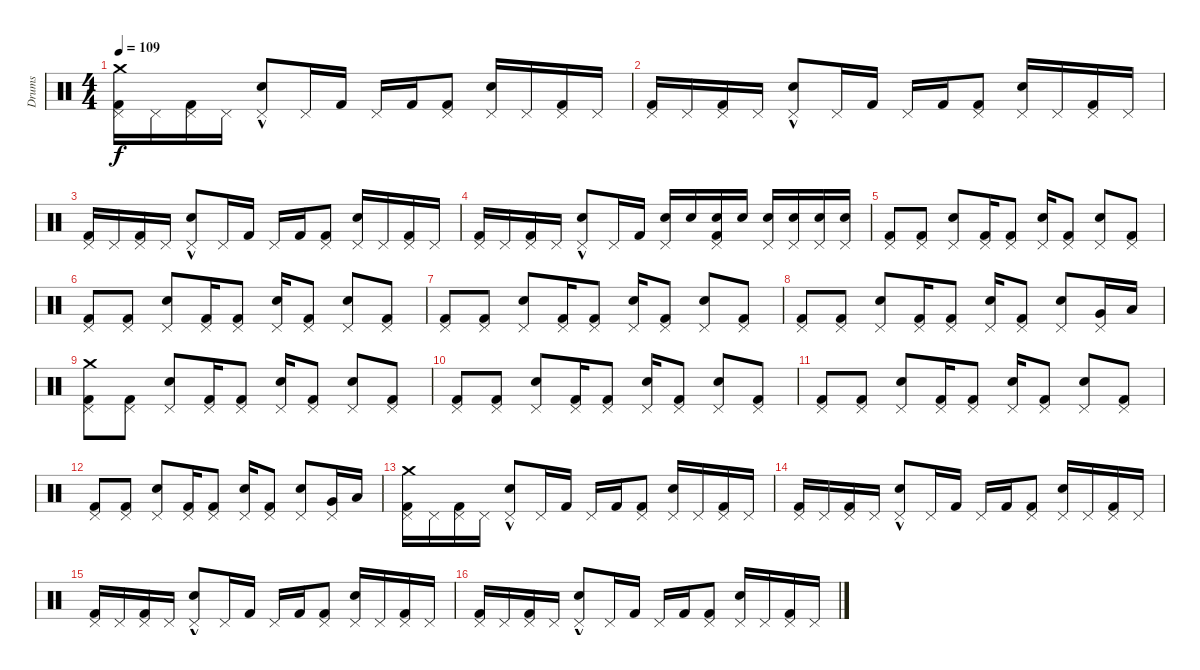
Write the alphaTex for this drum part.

\track ("Drums" "Drums") {instrument percussion}
\staff {score}
\articulation defaults
\ts (4 4)
\tempo 109
\clef neutral
\ks c
("Crash medium (hit)" "Kick (hit) 2" "Pedal Hi-Hat (hit)").16{dy f} "Pedal Hi-Hat (hit)".16 ("Kick (hit) 2" "Pedal Hi-Hat (hit)").16 "Pedal Hi-Hat (hit)".16 ("Snare (hit) 2"{hac} "Pedal Hi-Hat (hit)").8 "Pedal Hi-Hat (hit)".16 "Kick (hit) 2".16 "Pedal Hi-Hat (hit)".16 "Kick (hit) 2".16 ("Kick (hit) 2" "Pedal Hi-Hat (hit)").8 ("Snare (hit) 2" "Pedal Hi-Hat (hit)").16 "Pedal Hi-Hat (hit)".16 ("Kick (hit) 2" "Pedal Hi-Hat (hit)").16 "Pedal Hi-Hat (hit)".16 |
("Kick (hit) 2" "Pedal Hi-Hat (hit)").16 "Pedal Hi-Hat (hit)".16 ("Kick (hit) 2" "Pedal Hi-Hat (hit)").16 "Pedal Hi-Hat (hit)".16 ("Snare (hit) 2"{hac} "Pedal Hi-Hat (hit)").8 "Pedal Hi-Hat (hit)".16 "Kick (hit) 2".16 "Pedal Hi-Hat (hit)".16 "Kick (hit) 2".16 ("Kick (hit) 2" "Pedal Hi-Hat (hit)").8 ("Snare (hit) 2" "Pedal Hi-Hat (hit)").16 "Pedal Hi-Hat (hit)".16 ("Kick (hit) 2" "Pedal Hi-Hat (hit)").16 "Pedal Hi-Hat (hit)".16 |
("Kick (hit) 2" "Pedal Hi-Hat (hit)").16 "Pedal Hi-Hat (hit)".16 ("Kick (hit) 2" "Pedal Hi-Hat (hit)").16 "Pedal Hi-Hat (hit)".16 ("Snare (hit) 2"{hac} "Pedal Hi-Hat (hit)").8 "Pedal Hi-Hat (hit)".16 "Kick (hit) 2".16 "Pedal Hi-Hat (hit)".16 "Kick (hit) 2".16 ("Kick (hit) 2" "Pedal Hi-Hat (hit)").8 ("Snare (hit) 2" "Pedal Hi-Hat (hit)").16 "Pedal Hi-Hat (hit)".16 ("Kick (hit) 2" "Pedal Hi-Hat (hit)").16 "Pedal Hi-Hat (hit)".16 |
("Kick (hit) 2" "Pedal Hi-Hat (hit)").16 "Pedal Hi-Hat (hit)".16 ("Kick (hit) 2" "Pedal Hi-Hat (hit)").16 "Pedal Hi-Hat (hit)".16 ("Snare (hit) 2"{hac} "Pedal Hi-Hat (hit)").8 "Pedal Hi-Hat (hit)".16 "Kick (hit) 2".16 ("Snare (hit) 2" "Pedal Hi-Hat (hit)").16 "Snare (hit) 2".16 ("Snare (hit) 2" "Kick (hit) 2" "Pedal Hi-Hat (hit)").16 "Snare (hit) 2".16 ("Snare (hit) 2" "Pedal Hi-Hat (hit)").16 ("Snare (hit) 2" "Pedal Hi-Hat (hit)").16 ("Snare (hit) 2" "Pedal Hi-Hat (hit)").16 ("Snare (hit) 2" "Pedal Hi-Hat (hit)").16 |
("Pedal Hi-Hat (hit)" "Kick (hit) 2").8 ("Pedal Hi-Hat (hit)" "Kick (hit) 2").8 ("Pedal Hi-Hat (hit)" "Snare (hit) 2").8 ("Pedal Hi-Hat (hit)" "Kick (hit) 2").16 ("Pedal Hi-Hat (hit)" "Kick (hit) 2").8 ("Pedal Hi-Hat (hit)" "Snare (hit) 2").16 ("Pedal Hi-Hat (hit)" "Kick (hit) 2").8 ("Pedal Hi-Hat (hit)" "Snare (hit) 2").8 ("Pedal Hi-Hat (hit)" "Kick (hit) 2").8 |
("Pedal Hi-Hat (hit)" "Kick (hit) 2").8 ("Pedal Hi-Hat (hit)" "Kick (hit) 2").8 ("Pedal Hi-Hat (hit)" "Snare (hit) 2").8 ("Pedal Hi-Hat (hit)" "Kick (hit) 2").16 ("Pedal Hi-Hat (hit)" "Kick (hit) 2").8 ("Pedal Hi-Hat (hit)" "Snare (hit) 2").16 ("Pedal Hi-Hat (hit)" "Kick (hit) 2").8 ("Pedal Hi-Hat (hit)" "Snare (hit) 2").8 ("Pedal Hi-Hat (hit)" "Kick (hit) 2").8 |
("Pedal Hi-Hat (hit)" "Kick (hit) 2").8 ("Pedal Hi-Hat (hit)" "Kick (hit) 2").8 ("Pedal Hi-Hat (hit)" "Snare (hit) 2").8 ("Pedal Hi-Hat (hit)" "Kick (hit) 2").16 ("Pedal Hi-Hat (hit)" "Kick (hit) 2").8 ("Pedal Hi-Hat (hit)" "Snare (hit) 2").16 ("Pedal Hi-Hat (hit)" "Kick (hit) 2").8 ("Pedal Hi-Hat (hit)" "Snare (hit) 2").8 ("Pedal Hi-Hat (hit)" "Kick (hit) 2").8 |
("Pedal Hi-Hat (hit)" "Kick (hit) 2").8 ("Pedal Hi-Hat (hit)" "Kick (hit) 2").8 ("Pedal Hi-Hat (hit)" "Snare (hit) 2").8 ("Pedal Hi-Hat (hit)" "Kick (hit) 2").16 ("Pedal Hi-Hat (hit)" "Kick (hit) 2").8 ("Pedal Hi-Hat (hit)" "Snare (hit) 2").16 ("Pedal Hi-Hat (hit)" "Kick (hit) 2").8 ("Pedal Hi-Hat (hit)" "Snare (hit) 2").8 ("Very Low Tom (hit)" "Pedal Hi-Hat (hit)").16 "Low Floor Tom (hit)".16 |
("Crash medium (hit)" "Pedal Hi-Hat (hit)" "Kick (hit) 2").8 ("Pedal Hi-Hat (hit)" "Kick (hit) 2").8 ("Pedal Hi-Hat (hit)" "Snare (hit) 2").8 ("Pedal Hi-Hat (hit)" "Kick (hit) 2").16 ("Pedal Hi-Hat (hit)" "Kick (hit) 2").8 ("Pedal Hi-Hat (hit)" "Snare (hit) 2").16 ("Pedal Hi-Hat (hit)" "Kick (hit) 2").8 ("Pedal Hi-Hat (hit)" "Snare (hit) 2").8 ("Pedal Hi-Hat (hit)" "Kick (hit) 2").8 |
("Pedal Hi-Hat (hit)" "Kick (hit) 2").8 ("Pedal Hi-Hat (hit)" "Kick (hit) 2").8 ("Pedal Hi-Hat (hit)" "Snare (hit) 2").8 ("Pedal Hi-Hat (hit)" "Kick (hit) 2").16 ("Pedal Hi-Hat (hit)" "Kick (hit) 2").8 ("Pedal Hi-Hat (hit)" "Snare (hit) 2").16 ("Pedal Hi-Hat (hit)" "Kick (hit) 2").8 ("Pedal Hi-Hat (hit)" "Snare (hit) 2").8 ("Pedal Hi-Hat (hit)" "Kick (hit) 2").8 |
("Pedal Hi-Hat (hit)" "Kick (hit) 2").8 ("Pedal Hi-Hat (hit)" "Kick (hit) 2").8 ("Pedal Hi-Hat (hit)" "Snare (hit) 2").8 ("Pedal Hi-Hat (hit)" "Kick (hit) 2").16 ("Pedal Hi-Hat (hit)" "Kick (hit) 2").8 ("Pedal Hi-Hat (hit)" "Snare (hit) 2").16 ("Pedal Hi-Hat (hit)" "Kick (hit) 2").8 ("Pedal Hi-Hat (hit)" "Snare (hit) 2").8 ("Pedal Hi-Hat (hit)" "Kick (hit) 2").8 |
("Pedal Hi-Hat (hit)" "Kick (hit) 2").8 ("Pedal Hi-Hat (hit)" "Kick (hit) 2").8 ("Pedal Hi-Hat (hit)" "Snare (hit) 2").8 ("Pedal Hi-Hat (hit)" "Kick (hit) 2").16 ("Pedal Hi-Hat (hit)" "Kick (hit) 2").8 ("Pedal Hi-Hat (hit)" "Snare (hit) 2").16 ("Pedal Hi-Hat (hit)" "Kick (hit) 2").8 ("Pedal Hi-Hat (hit)" "Snare (hit) 2").8 ("Very Low Tom (hit)" "Pedal Hi-Hat (hit)").16 "Low Floor Tom (hit)".16 |
("Crash medium (hit)" "Kick (hit) 2" "Pedal Hi-Hat (hit)").16 "Pedal Hi-Hat (hit)".16 ("Kick (hit) 2" "Pedal Hi-Hat (hit)").16 "Pedal Hi-Hat (hit)".16 ("Snare (hit) 2"{hac} "Pedal Hi-Hat (hit)").8 "Pedal Hi-Hat (hit)".16 "Kick (hit) 2".16 "Pedal Hi-Hat (hit)".16 "Kick (hit) 2".16 ("Kick (hit) 2" "Pedal Hi-Hat (hit)").8 ("Snare (hit) 2" "Pedal Hi-Hat (hit)").16 "Pedal Hi-Hat (hit)".16 ("Kick (hit) 2" "Pedal Hi-Hat (hit)").16 "Pedal Hi-Hat (hit)".16 |
("Kick (hit) 2" "Pedal Hi-Hat (hit)").16 "Pedal Hi-Hat (hit)".16 ("Kick (hit) 2" "Pedal Hi-Hat (hit)").16 "Pedal Hi-Hat (hit)".16 ("Snare (hit) 2"{hac} "Pedal Hi-Hat (hit)").8 "Pedal Hi-Hat (hit)".16 "Kick (hit) 2".16 "Pedal Hi-Hat (hit)".16 "Kick (hit) 2".16 ("Kick (hit) 2" "Pedal Hi-Hat (hit)").8 ("Snare (hit) 2" "Pedal Hi-Hat (hit)").16 "Pedal Hi-Hat (hit)".16 ("Kick (hit) 2" "Pedal Hi-Hat (hit)").16 "Pedal Hi-Hat (hit)".16 |
("Kick (hit) 2" "Pedal Hi-Hat (hit)").16 "Pedal Hi-Hat (hit)".16 ("Kick (hit) 2" "Pedal Hi-Hat (hit)").16 "Pedal Hi-Hat (hit)".16 ("Snare (hit) 2"{hac} "Pedal Hi-Hat (hit)").8 "Pedal Hi-Hat (hit)".16 "Kick (hit) 2".16 "Pedal Hi-Hat (hit)".16 "Kick (hit) 2".16 ("Kick (hit) 2" "Pedal Hi-Hat (hit)").8 ("Snare (hit) 2" "Pedal Hi-Hat (hit)").16 "Pedal Hi-Hat (hit)".16 ("Kick (hit) 2" "Pedal Hi-Hat (hit)").16 "Pedal Hi-Hat (hit)".16 |
("Kick (hit) 2" "Pedal Hi-Hat (hit)").16 "Pedal Hi-Hat (hit)".16 ("Kick (hit) 2" "Pedal Hi-Hat (hit)").16 "Pedal Hi-Hat (hit)".16 ("Snare (hit) 2"{hac} "Pedal Hi-Hat (hit)").8 "Pedal Hi-Hat (hit)".16 "Kick (hit) 2".16 "Pedal Hi-Hat (hit)".16 "Kick (hit) 2".16 ("Kick (hit) 2" "Pedal Hi-Hat (hit)").8 ("Snare (hit) 2" "Pedal Hi-Hat (hit)").16 "Pedal Hi-Hat (hit)".16 ("Kick (hit) 2" "Pedal Hi-Hat (hit)").16 "Pedal Hi-Hat (hit)".16
